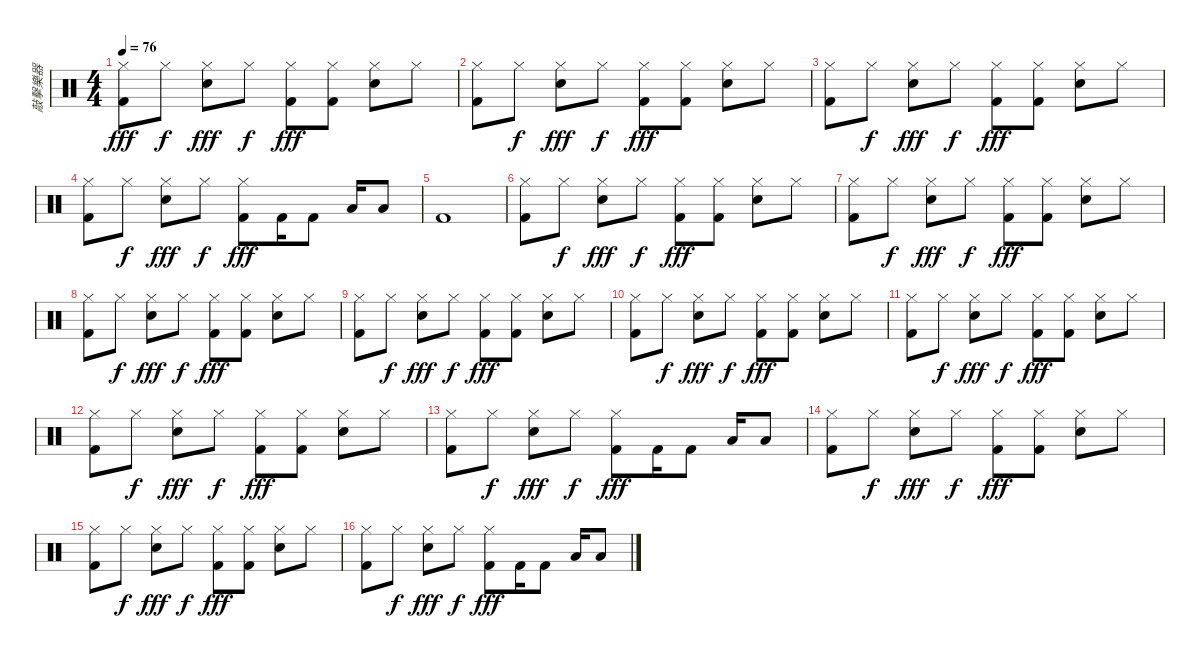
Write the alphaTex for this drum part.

\track ("敲擊樂器" "敲擊樂器") {instrument percussion}
\staff {score}
\articulation defaults
\ts (4 4)
\tempo 76
\clef neutral
\ks c
("Hi-Hat (closed)" "Kick (hit) 2").8{dy fff} "Hi-Hat (closed)".8{dy f} ("Hi-Hat (closed)" "Snare (hit) 2").8{dy fff} "Hi-Hat (closed)".8{dy f} ("Hi-Hat (closed)" "Kick (hit) 2").8{dy fff} ("Hi-Hat (closed)" "Kick (hit) 2").8 ("Hi-Hat (closed)" "Snare (hit) 2").8 "Hi-Hat (closed)".8 |
("Hi-Hat (closed)" "Kick (hit) 2").8 "Hi-Hat (closed)".8{dy f} ("Hi-Hat (closed)" "Snare (hit) 2").8{dy fff} "Hi-Hat (closed)".8{dy f} ("Hi-Hat (closed)" "Kick (hit) 2").8{dy fff} ("Hi-Hat (closed)" "Kick (hit) 2").8 ("Hi-Hat (closed)" "Snare (hit) 2").8 "Hi-Hat (closed)".8 |
("Hi-Hat (closed)" "Kick (hit) 2").8 "Hi-Hat (closed)".8{dy f} ("Hi-Hat (closed)" "Snare (hit) 2").8{dy fff} "Hi-Hat (closed)".8{dy f} ("Hi-Hat (closed)" "Kick (hit) 2").8{dy fff} ("Hi-Hat (closed)" "Kick (hit) 2").8 ("Hi-Hat (closed)" "Snare (hit) 2").8 "Hi-Hat (closed)".8 |
("Hi-Hat (closed)" "Kick (hit) 2").8 "Hi-Hat (closed)".8{dy f} ("Hi-Hat (closed)" "Snare (hit) 2").8{dy fff} "Hi-Hat (closed)".8{dy f} ("Hi-Hat (closed)" "Kick (hit) 2").8{dy fff} "Kick (hit) 2".16 "Kick (hit) 2".8 "Low Floor Tom (hit)".16 "Low Floor Tom (hit)".8 |
"Kick (hit) 2".1 |
("Hi-Hat (closed)" "Kick (hit) 2").8 "Hi-Hat (closed)".8{dy f} ("Hi-Hat (closed)" "Snare (hit) 2").8{dy fff} "Hi-Hat (closed)".8{dy f} ("Hi-Hat (closed)" "Kick (hit) 2").8{dy fff} ("Hi-Hat (closed)" "Kick (hit) 2").8 ("Hi-Hat (closed)" "Snare (hit) 2").8 "Hi-Hat (closed)".8 |
("Hi-Hat (closed)" "Kick (hit) 2").8 "Hi-Hat (closed)".8{dy f} ("Hi-Hat (closed)" "Snare (hit) 2").8{dy fff} "Hi-Hat (closed)".8{dy f} ("Hi-Hat (closed)" "Kick (hit) 2").8{dy fff} ("Hi-Hat (closed)" "Kick (hit) 2").8 ("Hi-Hat (closed)" "Snare (hit) 2").8 "Hi-Hat (closed)".8 |
("Hi-Hat (closed)" "Kick (hit) 2").8 "Hi-Hat (closed)".8{dy f} ("Hi-Hat (closed)" "Snare (hit) 2").8{dy fff} "Hi-Hat (closed)".8{dy f} ("Hi-Hat (closed)" "Kick (hit) 2").8{dy fff} ("Hi-Hat (closed)" "Kick (hit) 2").8 ("Hi-Hat (closed)" "Snare (hit) 2").8 "Hi-Hat (closed)".8 |
("Hi-Hat (closed)" "Kick (hit) 2").8 "Hi-Hat (closed)".8{dy f} ("Hi-Hat (closed)" "Snare (hit) 2").8{dy fff} "Hi-Hat (closed)".8{dy f} ("Hi-Hat (closed)" "Kick (hit) 2").8{dy fff} ("Hi-Hat (closed)" "Kick (hit) 2").8 ("Hi-Hat (closed)" "Snare (hit) 2").8 "Hi-Hat (closed)".8 |
("Hi-Hat (closed)" "Kick (hit) 2").8 "Hi-Hat (closed)".8{dy f} ("Hi-Hat (closed)" "Snare (hit) 2").8{dy fff} "Hi-Hat (closed)".8{dy f} ("Hi-Hat (closed)" "Kick (hit) 2").8{dy fff} ("Hi-Hat (closed)" "Kick (hit) 2").8 ("Hi-Hat (closed)" "Snare (hit) 2").8 "Hi-Hat (closed)".8 |
("Hi-Hat (closed)" "Kick (hit) 2").8 "Hi-Hat (closed)".8{dy f} ("Hi-Hat (closed)" "Snare (hit) 2").8{dy fff} "Hi-Hat (closed)".8{dy f} ("Hi-Hat (closed)" "Kick (hit) 2").8{dy fff} ("Hi-Hat (closed)" "Kick (hit) 2").8 ("Hi-Hat (closed)" "Snare (hit) 2").8 "Hi-Hat (closed)".8 |
("Hi-Hat (closed)" "Kick (hit) 2").8 "Hi-Hat (closed)".8{dy f} ("Hi-Hat (closed)" "Snare (hit) 2").8{dy fff} "Hi-Hat (closed)".8{dy f} ("Hi-Hat (closed)" "Kick (hit) 2").8{dy fff} ("Hi-Hat (closed)" "Kick (hit) 2").8 ("Hi-Hat (closed)" "Snare (hit) 2").8 "Hi-Hat (closed)".8 |
("Hi-Hat (closed)" "Kick (hit) 2").8 "Hi-Hat (closed)".8{dy f} ("Hi-Hat (closed)" "Snare (hit) 2").8{dy fff} "Hi-Hat (closed)".8{dy f} ("Hi-Hat (closed)" "Kick (hit) 2").8{dy fff} "Kick (hit) 2".16 "Kick (hit) 2".8 "Low Floor Tom (hit)".16 "Low Floor Tom (hit)".8 |
("Hi-Hat (closed)" "Kick (hit) 2").8 "Hi-Hat (closed)".8{dy f} ("Hi-Hat (closed)" "Snare (hit) 2").8{dy fff} "Hi-Hat (closed)".8{dy f} ("Hi-Hat (closed)" "Kick (hit) 2").8{dy fff} ("Hi-Hat (closed)" "Kick (hit) 2").8 ("Hi-Hat (closed)" "Snare (hit) 2").8 "Hi-Hat (closed)".8 |
("Hi-Hat (closed)" "Kick (hit) 2").8 "Hi-Hat (closed)".8{dy f} ("Hi-Hat (closed)" "Snare (hit) 2").8{dy fff} "Hi-Hat (closed)".8{dy f} ("Hi-Hat (closed)" "Kick (hit) 2").8{dy fff} ("Hi-Hat (closed)" "Kick (hit) 2").8 ("Hi-Hat (closed)" "Snare (hit) 2").8 "Hi-Hat (closed)".8 |
("Hi-Hat (closed)" "Kick (hit) 2").8 "Hi-Hat (closed)".8{dy f} ("Hi-Hat (closed)" "Snare (hit) 2").8{dy fff} "Hi-Hat (closed)".8{dy f} ("Hi-Hat (closed)" "Kick (hit) 2").8{dy fff} "Kick (hit) 2".16 "Kick (hit) 2".8 "Low Floor Tom (hit)".16 "Low Floor Tom (hit)".8
